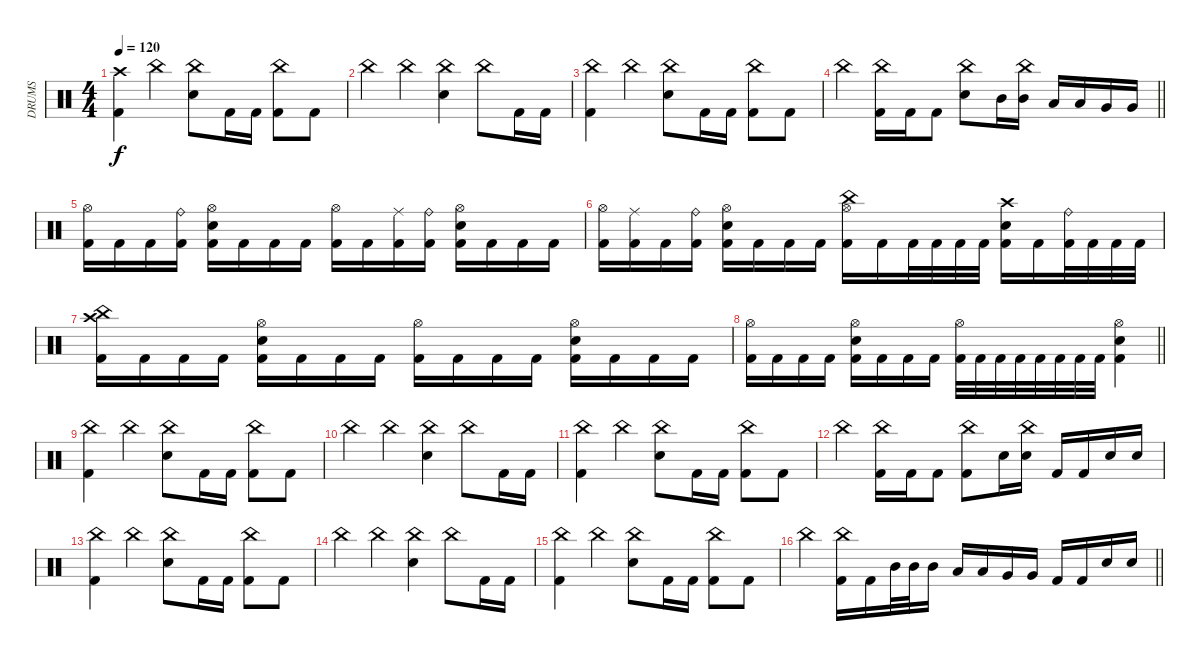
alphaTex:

\track ("DRUMS" "DRUMS") {instrument percussion}
\staff {score}
\articulation defaults
\ts (4 4)
\tempo 120
\clef neutral
\ks c
("Crash high (hit)" "Kick (hit) 2").4{dy f} "China (hit)".4 ("China (hit)" "Electric Snare (hit)").8 "Kick (hit) 2".16 "Kick (hit) 2".16 ("China (hit)" "Kick (hit) 2").8 "Kick (hit) 2".8 |
"China (hit)".4 "China (hit)".4 ("China (hit)" "Electric Snare (hit)").4 "China (hit)".8 "Kick (hit) 2".16 "Kick (hit) 2".16 |
("China (hit)" "Kick (hit) 2").4 "China (hit)".4 ("China (hit)" "Electric Snare (hit)").8 "Kick (hit) 2".16 "Kick (hit) 2".16 ("China (hit)" "Kick (hit) 2").8 "Kick (hit) 2".8 |
\barLineRight lightlight "China (hit)".4
("China (hit)" "Kick (hit) 2").16 "Kick (hit) 2".16 "Kick (hit) 2".8 ("China (hit)" "Electric Snare (hit)").8 "Mid Tom (hit)".16 ("China (hit)" "Mid Tom (hit)").16 "Low Tom (hit)".16 "Low Tom (hit)".16 "Very Low Tom (hit)".16 "Very Low Tom (hit)".16 |
("Hi-Hat (open)" "Kick (hit) 2").16 "Kick (hit) 2".16 "Kick (hit) 2".16 ("Ride (bell)" "Kick (hit) 2").16 ("Hi-Hat (open)" "Electric Snare (hit)" "Kick (hit) 2").16 "Kick (hit) 2".16 "Kick (hit) 2".16 "Kick (hit) 2".16 ("Hi-Hat (open)" "Kick (hit) 2").16 "Kick (hit) 2".16 ("Ride (middle)" "Kick (hit) 2").16 ("Ride (bell)" "Kick (hit) 2").16 ("Hi-Hat (open)" "Electric Snare (hit)" "Kick (hit) 2").16 "Kick (hit) 2".16 "Kick (hit) 2".16 "Kick (hit) 2".16 |
("Hi-Hat (open)" "Kick (hit) 2").16 ("Ride (middle)" "Kick (hit) 2").16 "Kick (hit) 2".16 ("Ride (bell)" "Kick (hit) 2").16 ("Hi-Hat (open)" "Electric Snare (hit)" "Kick (hit) 2").16 "Kick (hit) 2".16 "Kick (hit) 2".16 "Kick (hit) 2".16 ("Hi-Hat (open)" "China (hit)" "Kick (hit) 2").16 "Kick (hit) 2".16 "Kick (hit) 2".32 "Kick (hit) 2".32 "Kick (hit) 2".32 "Kick (hit) 2".32 ("Crash high (hit)" "Electric Snare (hit)" "Kick (hit) 2").16 "Kick (hit) 2".16 ("Ride (bell)" "Kick (hit) 2").32 "Kick (hit) 2".32 "Kick (hit) 2".32 "Kick (hit) 2".32 |
("Crash high (hit)" "China (hit)" "Kick (hit) 2").16 "Kick (hit) 2".16 "Kick (hit) 2".16 "Kick (hit) 2".16 ("Hi-Hat (open)" "Electric Snare (hit)" "Kick (hit) 2").16 "Kick (hit) 2".16 "Kick (hit) 2".16 "Kick (hit) 2".16 ("Hi-Hat (open)" "Kick (hit) 2").16 "Kick (hit) 2".16 "Kick (hit) 2".16 "Kick (hit) 2".16 ("Hi-Hat (open)" "Electric Snare (hit)" "Kick (hit) 2").16 "Kick (hit) 2".16 "Kick (hit) 2".16 "Kick (hit) 2".16 |
\barLineRight lightlight
("Hi-Hat (open)" "Kick (hit) 2").16 "Kick (hit) 2".16 "Kick (hit) 2".16 "Kick (hit) 2".16 ("Hi-Hat (open)" "Electric Snare (hit)" "Kick (hit) 2").16 "Kick (hit) 2".16 "Kick (hit) 2".16 "Kick (hit) 2".16 ("Hi-Hat (open)" "Kick (hit) 2").32 "Kick (hit) 2".32 "Kick (hit) 2".32 "Kick (hit) 2".32 "Kick (hit) 2".32 "Kick (hit) 2".32 "Kick (hit) 2".32 "Kick (hit) 2".32 ("Hi-Hat (open)" "Electric Snare (hit)" "Kick (hit) 2").4 |
("China (hit)" "Kick (hit) 2").4 "China (hit)".4 ("China (hit)" "Electric Snare (hit)").8 "Kick (hit) 2".16 "Kick (hit) 2".16 ("China (hit)" "Kick (hit) 2").8 "Kick (hit) 2".8 |
"China (hit)".4 "China (hit)".4 ("China (hit)" "Electric Snare (hit)").4 "China (hit)".8 "Kick (hit) 2".16 "Kick (hit) 2".16 |
("China (hit)" "Kick (hit) 2").4 "China (hit)".4 ("China (hit)" "Electric Snare (hit)").8 "Kick (hit) 2".16 "Kick (hit) 2".16 ("China (hit)" "Kick (hit) 2").8 "Kick (hit) 2".8 |
"China (hit)".4 ("China (hit)" "Kick (hit) 2").16 "Kick (hit) 2".16 "Kick (hit) 2".8 ("China (hit)" "Kick (hit) 2").8 "Electric Snare (hit)".16 ("China (hit)" "Electric Snare (hit)").16 "Kick (hit) 2".16 "Kick (hit) 2".16 "Electric Snare (hit)".16 "Electric Snare (hit)".16 |
("China (hit)" "Kick (hit) 2").4 "China (hit)".4 ("China (hit)" "Electric Snare (hit)").8 "Kick (hit) 2".16 "Kick (hit) 2".16 ("China (hit)" "Kick (hit) 2").8 "Kick (hit) 2".8 |
"China (hit)".4 "China (hit)".4 ("China (hit)" "Electric Snare (hit)").4 "China (hit)".8 "Kick (hit) 2".16 "Kick (hit) 2".16 |
("China (hit)" "Kick (hit) 2").4 "China (hit)".4 ("China (hit)" "Electric Snare (hit)").8 "Kick (hit) 2".16 "Kick (hit) 2".16 ("China (hit)" "Kick (hit) 2").8 "Kick (hit) 2".8 |
\barLineRight lightlight "China (hit)".4
("China (hit)" "Kick (hit) 2").16 "Kick (hit) 2".16 "Mid Tom (hit)".32 "Mid Tom (hit)".32 "Mid Tom (hit)".16 "Low Tom (hit)".16 "Low Tom (hit)".16 "Very Low Tom (hit)".16 "Very Low Tom (hit)".16 "Kick (hit) 2".16 "Kick (hit) 2".16 "Electric Snare (hit)".16 "Electric Snare (hit)".16
